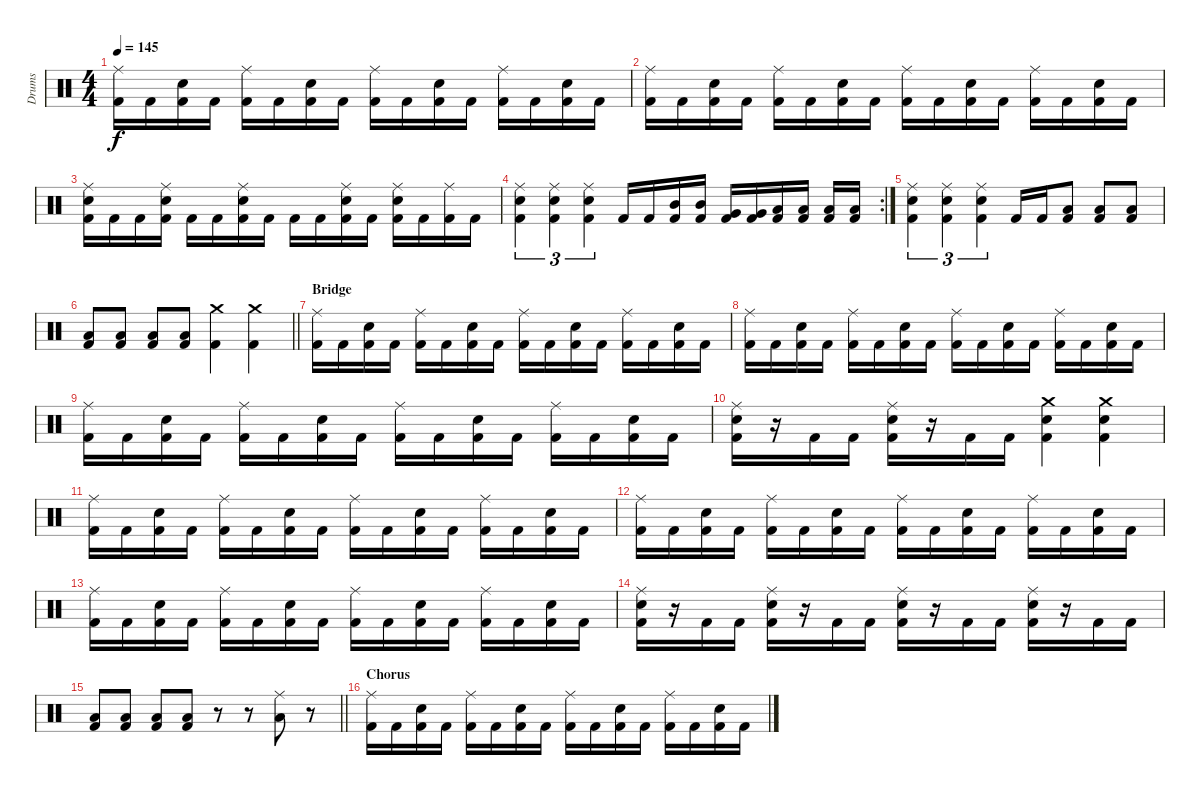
\track ("Drums" "Drums") {instrument percussion}
\staff {score}
\articulation defaults
\ts (4 4)
\tempo 145
\clef neutral
\ks c
("Ride (middle)" "Kick (hit) 2").16{dy f} "Kick (hit) 2".16 ("Electric Snare (hit)" "Kick (hit) 2").16 "Kick (hit) 2".16 ("Ride (middle)" "Kick (hit) 2").16 "Kick (hit) 2".16 ("Electric Snare (hit)" "Kick (hit) 2").16 "Kick (hit) 2".16 ("Ride (middle)" "Kick (hit) 2").16 "Kick (hit) 2".16 ("Electric Snare (hit)" "Kick (hit) 2").16 "Kick (hit) 2".16 ("Ride (middle)" "Kick (hit) 2").16 "Kick (hit) 2".16 ("Electric Snare (hit)" "Kick (hit) 2").16 "Kick (hit) 2".16 |
("Ride (middle)" "Kick (hit) 2").16 "Kick (hit) 2".16 ("Electric Snare (hit)" "Kick (hit) 2").16 "Kick (hit) 2".16 ("Ride (middle)" "Kick (hit) 2").16 "Kick (hit) 2".16 ("Electric Snare (hit)" "Kick (hit) 2").16 "Kick (hit) 2".16 ("Ride (middle)" "Kick (hit) 2").16 "Kick (hit) 2".16 ("Electric Snare (hit)" "Kick (hit) 2").16 "Kick (hit) 2".16 ("Ride (middle)" "Kick (hit) 2").16 "Kick (hit) 2".16 ("Electric Snare (hit)" "Kick (hit) 2").16 "Kick (hit) 2".16 |
("Ride (middle)" "Electric Snare (hit)" "Kick (hit) 2").16 "Kick (hit) 2".16 "Kick (hit) 2".16 ("Ride (middle)" "Electric Snare (hit)" "Kick (hit) 2").16 "Kick (hit) 2".16 "Kick (hit) 2".16 ("Ride (middle)" "Electric Snare (hit)" "Kick (hit) 2").16 "Kick (hit) 2".16 "Kick (hit) 2".16 "Kick (hit) 2".16 ("Ride (middle)" "Electric Snare (hit)" "Kick (hit) 2").16 "Kick (hit) 2".16 ("Ride (middle)" "Electric Snare (hit)" "Kick (hit) 2").16 "Kick (hit) 2".16 ("Ride (middle)" "Kick (hit) 2").16 "Kick (hit) 2".16 |
\rc 2
("Ride (middle)" "Electric Snare (hit)" "Kick (hit) 2").4{tu (3 2)} ("Ride (middle)" "Electric Snare (hit)" "Kick (hit) 2").4{tu (3 2)} ("Ride (middle)" "Electric Snare (hit)" "Kick (hit) 2").4{tu (3 2)} "Kick (hit) 2".16 "Kick (hit) 2".16 ("Mid Tom (hit)" "Kick (hit) 2").16 ("Mid Tom (hit)" "Kick (hit) 2").16 ("Very Low Tom (hit)" "Kick (hit) 2").16 ("Very Low Tom (hit)" "Kick (hit) 2").16 ("Low Floor Tom (hit)" "Kick (hit) 2").16 ("Low Floor Tom (hit)" "Kick (hit) 2").16 ("Low Floor Tom (hit)" "Kick (hit) 2").16 ("Low Floor Tom (hit)" "Kick (hit) 2").16 |
("Ride (middle)" "Electric Snare (hit)" "Kick (hit) 2").4{tu (3 2)} ("Ride (middle)" "Electric Snare (hit)" "Kick (hit) 2").4{tu (3 2)} ("Ride (middle)" "Electric Snare (hit)" "Kick (hit) 2").4{tu (3 2)} "Kick (hit) 2".16 "Kick (hit) 2".16 ("Low Floor Tom (hit)" "Kick (hit) 2").8 ("Low Floor Tom (hit)" "Kick (hit) 2").8 ("Low Floor Tom (hit)" "Kick (hit) 2").8 |
\barLineRight lightlight
("Low Floor Tom (hit)" "Kick (hit) 2").8 ("Low Floor Tom (hit)" "Kick (hit) 2").8 ("Low Floor Tom (hit)" "Kick (hit) 2").8 ("Low Floor Tom (hit)" "Kick (hit) 2").8 ("Crash medium (hit)" "Kick (hit) 2").4 ("Crash medium (hit)" "Kick (hit) 2").4 |
\section ("" "Bridge")
("Ride (middle)" "Kick (hit) 2").16 "Kick (hit) 2".16 ("Electric Snare (hit)" "Kick (hit) 2").16 "Kick (hit) 2".16 ("Ride (middle)" "Kick (hit) 2").16 "Kick (hit) 2".16 ("Electric Snare (hit)" "Kick (hit) 2").16 "Kick (hit) 2".16 ("Ride (middle)" "Kick (hit) 2").16 "Kick (hit) 2".16 ("Electric Snare (hit)" "Kick (hit) 2").16 "Kick (hit) 2".16 ("Ride (middle)" "Kick (hit) 2").16 "Kick (hit) 2".16 ("Electric Snare (hit)" "Kick (hit) 2").16 "Kick (hit) 2".16 |
("Ride (middle)" "Kick (hit) 2").16 "Kick (hit) 2".16 ("Electric Snare (hit)" "Kick (hit) 2").16 "Kick (hit) 2".16 ("Ride (middle)" "Kick (hit) 2").16 "Kick (hit) 2".16 ("Electric Snare (hit)" "Kick (hit) 2").16 "Kick (hit) 2".16 ("Ride (middle)" "Kick (hit) 2").16 "Kick (hit) 2".16 ("Electric Snare (hit)" "Kick (hit) 2").16 "Kick (hit) 2".16 ("Ride (middle)" "Kick (hit) 2").16 "Kick (hit) 2".16 ("Electric Snare (hit)" "Kick (hit) 2").16 "Kick (hit) 2".16 |
("Ride (middle)" "Kick (hit) 2").16 "Kick (hit) 2".16 ("Electric Snare (hit)" "Kick (hit) 2").16 "Kick (hit) 2".16 ("Ride (middle)" "Kick (hit) 2").16 "Kick (hit) 2".16 ("Electric Snare (hit)" "Kick (hit) 2").16 "Kick (hit) 2".16 ("Ride (middle)" "Kick (hit) 2").16 "Kick (hit) 2".16 ("Electric Snare (hit)" "Kick (hit) 2").16 "Kick (hit) 2".16 ("Ride (middle)" "Kick (hit) 2").16 "Kick (hit) 2".16 ("Electric Snare (hit)" "Kick (hit) 2").16 "Kick (hit) 2".16 |
("Ride (middle)" "Electric Snare (hit)" "Kick (hit) 2").16 r.16 "Kick (hit) 2".16 "Kick (hit) 2".16 ("Ride (middle)" "Electric Snare (hit)" "Kick (hit) 2").16 r.16 "Kick (hit) 2".16 "Kick (hit) 2".16 ("Crash medium (hit)" "Electric Snare (hit)" "Kick (hit) 2").4 ("Crash medium (hit)" "Electric Snare (hit)" "Kick (hit) 2").4 |
("Ride (middle)" "Kick (hit) 2").16 "Kick (hit) 2".16 ("Electric Snare (hit)" "Kick (hit) 2").16 "Kick (hit) 2".16 ("Ride (middle)" "Kick (hit) 2").16 "Kick (hit) 2".16 ("Electric Snare (hit)" "Kick (hit) 2").16 "Kick (hit) 2".16 ("Ride (middle)" "Kick (hit) 2").16 "Kick (hit) 2".16 ("Electric Snare (hit)" "Kick (hit) 2").16 "Kick (hit) 2".16 ("Ride (middle)" "Kick (hit) 2").16 "Kick (hit) 2".16 ("Electric Snare (hit)" "Kick (hit) 2").16 "Kick (hit) 2".16 |
("Ride (middle)" "Kick (hit) 2").16 "Kick (hit) 2".16 ("Electric Snare (hit)" "Kick (hit) 2").16 "Kick (hit) 2".16 ("Ride (middle)" "Kick (hit) 2").16 "Kick (hit) 2".16 ("Electric Snare (hit)" "Kick (hit) 2").16 "Kick (hit) 2".16 ("Ride (middle)" "Kick (hit) 2").16 "Kick (hit) 2".16 ("Electric Snare (hit)" "Kick (hit) 2").16 "Kick (hit) 2".16 ("Ride (middle)" "Kick (hit) 2").16 "Kick (hit) 2".16 ("Electric Snare (hit)" "Kick (hit) 2").16 "Kick (hit) 2".16 |
("Ride (middle)" "Kick (hit) 2").16 "Kick (hit) 2".16 ("Electric Snare (hit)" "Kick (hit) 2").16 "Kick (hit) 2".16 ("Ride (middle)" "Kick (hit) 2").16 "Kick (hit) 2".16 ("Electric Snare (hit)" "Kick (hit) 2").16 "Kick (hit) 2".16 ("Ride (middle)" "Kick (hit) 2").16 "Kick (hit) 2".16 ("Electric Snare (hit)" "Kick (hit) 2").16 "Kick (hit) 2".16 ("Ride (middle)" "Kick (hit) 2").16 "Kick (hit) 2".16 ("Electric Snare (hit)" "Kick (hit) 2").16 "Kick (hit) 2".16 |
("Ride (middle)" "Electric Snare (hit)" "Kick (hit) 2").16 r.16 "Kick (hit) 2".16 "Kick (hit) 2".16 ("Ride (middle)" "Electric Snare (hit)" "Kick (hit) 2").16 r.16 "Kick (hit) 2".16 "Kick (hit) 2".16 ("Ride (middle)" "Electric Snare (hit)" "Kick (hit) 2").16 r.16 "Kick (hit) 2".16 "Kick (hit) 2".16 ("Ride (middle)" "Electric Snare (hit)" "Kick (hit) 2").16 r.16 "Kick (hit) 2".16 "Kick (hit) 2".16 |
\barLineRight lightlight
("Low Floor Tom (hit)" "Kick (hit) 2").8 ("Low Floor Tom (hit)" "Kick (hit) 2").8 ("Low Floor Tom (hit)" "Kick (hit) 2").8 ("Low Floor Tom (hit)" "Kick (hit) 2").8 r.8 r.8 ("Ride (middle)" "Low Floor Tom (hit)").8 r.8 |
\section ("" "Chorus")
("Ride (middle)" "Kick (hit) 2").16 "Kick (hit) 2".16 ("Electric Snare (hit)" "Kick (hit) 2").16 "Kick (hit) 2".16 ("Ride (middle)" "Kick (hit) 2").16 "Kick (hit) 2".16 ("Electric Snare (hit)" "Kick (hit) 2").16 "Kick (hit) 2".16 ("Ride (middle)" "Kick (hit) 2").16 "Kick (hit) 2".16 ("Electric Snare (hit)" "Kick (hit) 2").16 "Kick (hit) 2".16 ("Ride (middle)" "Kick (hit) 2").16 "Kick (hit) 2".16 ("Electric Snare (hit)" "Kick (hit) 2").16 "Kick (hit) 2".16
